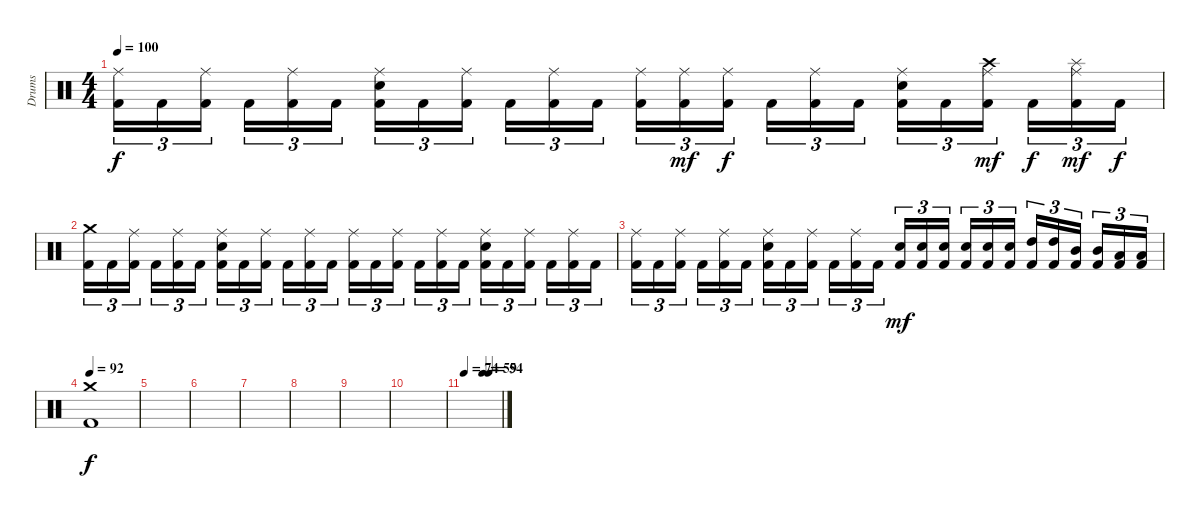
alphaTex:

\track ("Drums" "Drums") {instrument percussion}
\staff {score}
\articulation defaults
\ts (4 4)
\tempo 100
\clef neutral
\ks c
("Ride (middle)" "Kick (hit) 2").16{tu (3 2) dy f} "Kick (hit) 2".16{tu (3 2)} ("Ride (middle)" "Kick (hit) 2").16{tu (3 2) beam splitsecondary} "Kick (hit) 2".16{tu (3 2)} ("Ride (middle)" "Kick (hit) 2").16{tu (3 2)} "Kick (hit) 2".16{tu (3 2)} ("Ride (middle)" "Electric Snare (hit)" "Kick (hit) 2").16{tu (3 2)} "Kick (hit) 2".16{tu (3 2)} ("Ride (middle)" "Kick (hit) 2").16{tu (3 2) beam splitsecondary} "Kick (hit) 2".16{tu (3 2)} ("Ride (middle)" "Kick (hit) 2").16{tu (3 2)} "Kick (hit) 2".16{tu (3 2)} ("Ride (middle)" "Kick (hit) 2").16{tu (3 2)} ("Ride (middle)" "Kick (hit) 2").16{tu (3 2) dy mf} ("Ride (middle)" "Kick (hit) 2").16{tu (3 2) dy f beam splitsecondary} "Kick (hit) 2".16{tu (3 2)} ("Ride (middle)" "Kick (hit) 2").16{tu (3 2)} "Kick (hit) 2".16{tu (3 2)} ("Ride (middle)" "Electric Snare (hit)" "Kick (hit) 2").16{tu (3 2)} "Kick (hit) 2".16{tu (3 2)} ("Crash high (hit)" "Ride (middle)" "Kick (hit) 2").16{tu (3 2) dy mf beam splitsecondary} "Kick (hit) 2".16{tu (3 2) dy f} ("Splash (hit)" "Ride (middle)" "Kick (hit) 2").16{tu (3 2) dy mf} "Kick (hit) 2".16{tu (3 2) dy f} |
("Crash medium (hit)" "Kick (hit) 2").16{tu (3 2)} "Kick (hit) 2".16{tu (3 2)} ("Ride (middle)" "Kick (hit) 2").16{tu (3 2) beam splitsecondary} "Kick (hit) 2".16{tu (3 2)} ("Ride (middle)" "Kick (hit) 2").16{tu (3 2)} "Kick (hit) 2".16{tu (3 2)} ("Ride (middle)" "Electric Snare (hit)" "Kick (hit) 2").16{tu (3 2)} "Kick (hit) 2".16{tu (3 2)} ("Ride (middle)" "Kick (hit) 2").16{tu (3 2) beam splitsecondary} "Kick (hit) 2".16{tu (3 2)} ("Ride (middle)" "Kick (hit) 2").16{tu (3 2)} "Kick (hit) 2".16{tu (3 2)} ("Ride (middle)" "Kick (hit) 2").16{tu (3 2)} "Kick (hit) 2".16{tu (3 2)} ("Ride (middle)" "Kick (hit) 2").16{tu (3 2) beam splitsecondary} "Kick (hit) 2".16{tu (3 2)} ("Ride (middle)" "Kick (hit) 2").16{tu (3 2)} "Kick (hit) 2".16{tu (3 2)} ("Ride (middle)" "Electric Snare (hit)" "Kick (hit) 2").16{tu (3 2)} "Kick (hit) 2".16{tu (3 2)} ("Ride (middle)" "Kick (hit) 2").16{tu (3 2) beam splitsecondary} "Kick (hit) 2".16{tu (3 2)} ("Ride (middle)" "Kick (hit) 2").16{tu (3 2)} "Kick (hit) 2".16{tu (3 2)} |
("Ride (middle)" "Kick (hit) 2").16{tu (3 2)} "Kick (hit) 2".16{tu (3 2)} ("Ride (middle)" "Kick (hit) 2").16{tu (3 2) beam splitsecondary} "Kick (hit) 2".16{tu (3 2)} ("Ride (middle)" "Kick (hit) 2").16{tu (3 2)} "Kick (hit) 2".16{tu (3 2)} ("Ride (middle)" "Electric Snare (hit)" "Kick (hit) 2").16{tu (3 2)} "Kick (hit) 2".16{tu (3 2)} ("Ride (middle)" "Kick (hit) 2").16{tu (3 2) beam splitsecondary} "Kick (hit) 2".16{tu (3 2)} ("Ride (middle)" "Kick (hit) 2").16{tu (3 2)} "Kick (hit) 2".16{tu (3 2)} ("Electric Snare (hit)" "Kick (hit) 2").16{tu (3 2) dy mf} ("Electric Snare (hit)" "Kick (hit) 2").16{tu (3 2)} ("Electric Snare (hit)" "Kick (hit) 2").16{tu (3 2) beam splitsecondary} ("Electric Snare (hit)" "Kick (hit) 2").16{tu (3 2)} ("Electric Snare (hit)" "Kick (hit) 2").16{tu (3 2)} ("Electric Snare (hit)" "Kick (hit) 2").16{tu (3 2)} ("High Tom (hit)" "Kick (hit) 2").16{tu (3 2)} ("High Tom (hit)" "Kick (hit) 2").16{tu (3 2)} ("Mid Tom (hit)" "Kick (hit) 2").16{tu (3 2) beam splitsecondary} ("Mid Tom (hit)" "Kick (hit) 2").16{tu (3 2)} ("Low Tom (hit)" "Kick (hit) 2").16{tu (3 2)} ("Low Tom (hit)" "Kick (hit) 2").16{tu (3 2)} |
\tempo 92
("Crash medium (hit)" "Kick (hit) 2").1{dy f} |
|
|
|
|
|
|
\tempo 74
\tempo (59 0.5)
\tempo (54 0.6666666666666666)
